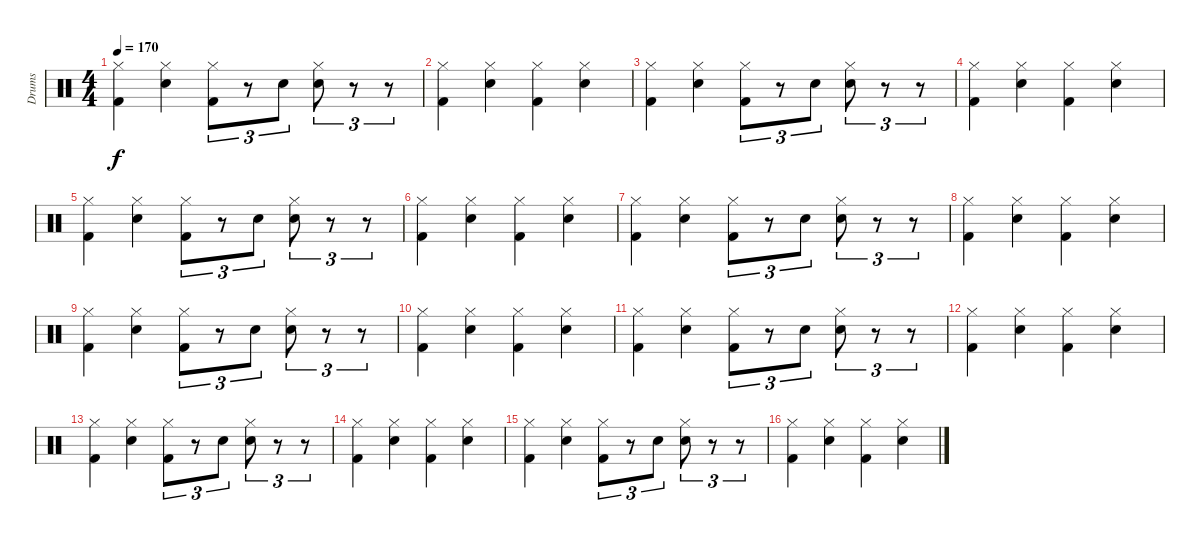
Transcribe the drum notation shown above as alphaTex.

\track ("Drums" "Drums") {instrument percussion}
\staff {score}
\articulation defaults
\ts (4 4)
\tempo 170
\clef neutral
\ks c
("Hi-Hat (closed)" "Kick (hit) 2").4{dy f} ("Hi-Hat (closed)" "Snare (hit) 2").4 ("Hi-Hat (closed)" "Kick (hit) 2").8{tu (3 2)} r.8{tu (3 2)} "Snare (hit) 2".8{tu (3 2)} ("Hi-Hat (closed)" "Snare (hit) 2").8{tu (3 2)} r.8{tu (3 2)} r.8{tu (3 2)} |
("Hi-Hat (closed)" "Kick (hit) 2").4 ("Hi-Hat (closed)" "Snare (hit) 2").4 ("Hi-Hat (closed)" "Kick (hit) 2").4 ("Hi-Hat (closed)" "Snare (hit) 2").4 |
("Hi-Hat (closed)" "Kick (hit) 2").4 ("Hi-Hat (closed)" "Snare (hit) 2").4 ("Hi-Hat (closed)" "Kick (hit) 2").8{tu (3 2)} r.8{tu (3 2)} "Snare (hit) 2".8{tu (3 2)} ("Hi-Hat (closed)" "Snare (hit) 2").8{tu (3 2)} r.8{tu (3 2)} r.8{tu (3 2)} |
("Hi-Hat (closed)" "Kick (hit) 2").4 ("Hi-Hat (closed)" "Snare (hit) 2").4 ("Hi-Hat (closed)" "Kick (hit) 2").4 ("Hi-Hat (closed)" "Snare (hit) 2").4 |
("Hi-Hat (closed)" "Kick (hit) 2").4 ("Hi-Hat (closed)" "Snare (hit) 2").4 ("Hi-Hat (closed)" "Kick (hit) 2").8{tu (3 2)} r.8{tu (3 2)} "Snare (hit) 2".8{tu (3 2)} ("Hi-Hat (closed)" "Snare (hit) 2").8{tu (3 2)} r.8{tu (3 2)} r.8{tu (3 2)} |
("Hi-Hat (closed)" "Kick (hit) 2").4 ("Hi-Hat (closed)" "Snare (hit) 2").4 ("Hi-Hat (closed)" "Kick (hit) 2").4 ("Hi-Hat (closed)" "Snare (hit) 2").4 |
("Hi-Hat (closed)" "Kick (hit) 2").4 ("Hi-Hat (closed)" "Snare (hit) 2").4 ("Hi-Hat (closed)" "Kick (hit) 2").8{tu (3 2)} r.8{tu (3 2)} "Snare (hit) 2".8{tu (3 2)} ("Hi-Hat (closed)" "Snare (hit) 2").8{tu (3 2)} r.8{tu (3 2)} r.8{tu (3 2)} |
("Hi-Hat (closed)" "Kick (hit) 2").4 ("Hi-Hat (closed)" "Snare (hit) 2").4 ("Hi-Hat (closed)" "Kick (hit) 2").4 ("Hi-Hat (closed)" "Snare (hit) 2").4 |
("Hi-Hat (closed)" "Kick (hit) 2").4 ("Hi-Hat (closed)" "Snare (hit) 2").4 ("Hi-Hat (closed)" "Kick (hit) 2").8{tu (3 2)} r.8{tu (3 2)} "Snare (hit) 2".8{tu (3 2)} ("Hi-Hat (closed)" "Snare (hit) 2").8{tu (3 2)} r.8{tu (3 2)} r.8{tu (3 2)} |
("Hi-Hat (closed)" "Kick (hit) 2").4 ("Hi-Hat (closed)" "Snare (hit) 2").4 ("Hi-Hat (closed)" "Kick (hit) 2").4 ("Hi-Hat (closed)" "Snare (hit) 2").4 |
("Hi-Hat (closed)" "Kick (hit) 2").4 ("Hi-Hat (closed)" "Snare (hit) 2").4 ("Hi-Hat (closed)" "Kick (hit) 2").8{tu (3 2)} r.8{tu (3 2)} "Snare (hit) 2".8{tu (3 2)} ("Hi-Hat (closed)" "Snare (hit) 2").8{tu (3 2)} r.8{tu (3 2)} r.8{tu (3 2)} |
("Hi-Hat (closed)" "Kick (hit) 2").4 ("Hi-Hat (closed)" "Snare (hit) 2").4 ("Hi-Hat (closed)" "Kick (hit) 2").4 ("Hi-Hat (closed)" "Snare (hit) 2").4 |
("Hi-Hat (closed)" "Kick (hit) 2").4 ("Hi-Hat (closed)" "Snare (hit) 2").4 ("Hi-Hat (closed)" "Kick (hit) 2").8{tu (3 2)} r.8{tu (3 2)} "Snare (hit) 2".8{tu (3 2)} ("Hi-Hat (closed)" "Snare (hit) 2").8{tu (3 2)} r.8{tu (3 2)} r.8{tu (3 2)} |
("Hi-Hat (closed)" "Kick (hit) 2").4 ("Hi-Hat (closed)" "Snare (hit) 2").4 ("Hi-Hat (closed)" "Kick (hit) 2").4 ("Hi-Hat (closed)" "Snare (hit) 2").4 |
("Hi-Hat (closed)" "Kick (hit) 2").4 ("Hi-Hat (closed)" "Snare (hit) 2").4 ("Hi-Hat (closed)" "Kick (hit) 2").8{tu (3 2)} r.8{tu (3 2)} "Snare (hit) 2".8{tu (3 2)} ("Hi-Hat (closed)" "Snare (hit) 2").8{tu (3 2)} r.8{tu (3 2)} r.8{tu (3 2)} |
("Hi-Hat (closed)" "Kick (hit) 2").4 ("Hi-Hat (closed)" "Snare (hit) 2").4 ("Hi-Hat (closed)" "Kick (hit) 2").4 ("Hi-Hat (closed)" "Snare (hit) 2").4
